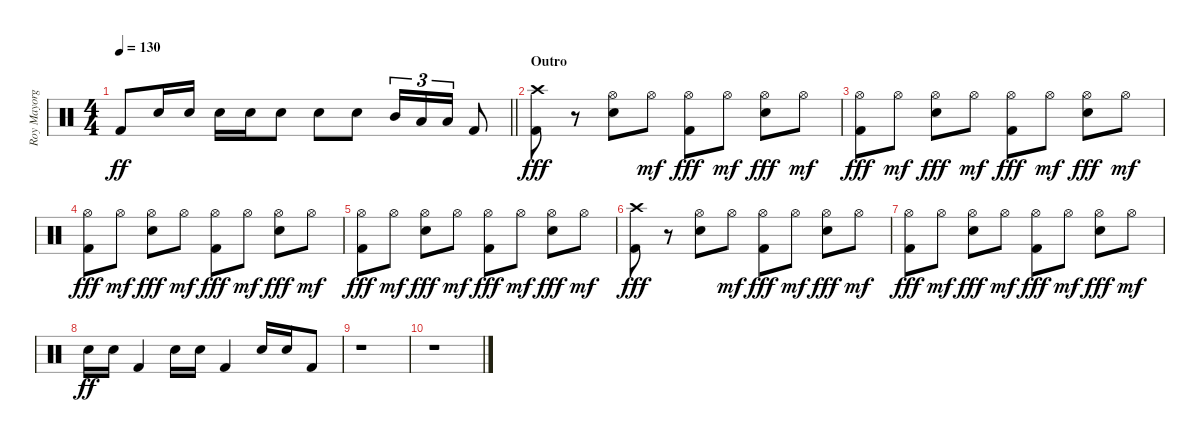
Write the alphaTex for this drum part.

\track ("Roy Mayorga (Drums)" "Roy Mayorg") {instrument percussion}
\staff {score}
\articulation defaults
\ts (4 4)
\tempo 130
\clef neutral
\barLineRight lightlight
\ks c "Kick (hit) 2".8{dy ff} "Electric Snare (hit)".16 "Electric Snare (hit)".16 "Electric Snare (hit)".16 "Electric Snare (hit)".16 "Electric Snare (hit)".8 "Electric Snare (hit)".8 "Electric Snare (hit)".8 "Mid Tom (hit)".16{tu (3 2)} "Low Tom (hit)".16{tu (3 2)} "Low Tom (hit)".16{tu (3 2)} "Kick (hit) 2".8
|
\section ("" "Outro")
("Crash high (hit)" "Kick (hit) 2").8{dy fff} r.8 ("Hi-Hat (open)" "Electric Snare (hit)").8 "Hi-Hat (open)".8{dy mf} ("Hi-Hat (open)" "Kick (hit) 2").8{dy fff} "Hi-Hat (open)".8{dy mf} ("Hi-Hat (open)" "Electric Snare (hit)").8{dy fff} "Hi-Hat (open)".8{dy mf} |
("Hi-Hat (open)" "Kick (hit) 2").8{dy fff} "Hi-Hat (open)".8{dy mf} ("Hi-Hat (open)" "Electric Snare (hit)").8{dy fff} "Hi-Hat (open)".8{dy mf} ("Hi-Hat (open)" "Kick (hit) 2").8{dy fff} "Hi-Hat (open)".8{dy mf} ("Hi-Hat (open)" "Electric Snare (hit)").8{dy fff} "Hi-Hat (open)".8{dy mf} |
("Hi-Hat (open)" "Kick (hit) 2").8{dy fff} "Hi-Hat (open)".8{dy mf} ("Hi-Hat (open)" "Electric Snare (hit)").8{dy fff} "Hi-Hat (open)".8{dy mf} ("Hi-Hat (open)" "Kick (hit) 2").8{dy fff} "Hi-Hat (open)".8{dy mf} ("Hi-Hat (open)" "Electric Snare (hit)").8{dy fff} "Hi-Hat (open)".8{dy mf} |
("Hi-Hat (open)" "Kick (hit) 2").8{dy fff} "Hi-Hat (open)".8{dy mf} ("Hi-Hat (open)" "Electric Snare (hit)").8{dy fff} "Hi-Hat (open)".8{dy mf} ("Hi-Hat (open)" "Kick (hit) 2").8{dy fff} "Hi-Hat (open)".8{dy mf} ("Hi-Hat (open)" "Electric Snare (hit)").8{dy fff} "Hi-Hat (open)".8{dy mf} |
("Crash high (hit)" "Kick (hit) 2").8{dy fff} r.8 ("Hi-Hat (open)" "Electric Snare (hit)").8 "Hi-Hat (open)".8{dy mf} ("Hi-Hat (open)" "Kick (hit) 2").8{dy fff} "Hi-Hat (open)".8{dy mf} ("Hi-Hat (open)" "Electric Snare (hit)").8{dy fff} "Hi-Hat (open)".8{dy mf} |
("Hi-Hat (open)" "Kick (hit) 2").8{dy fff} "Hi-Hat (open)".8{dy mf} ("Hi-Hat (open)" "Electric Snare (hit)").8{dy fff} "Hi-Hat (open)".8{dy mf} ("Hi-Hat (open)" "Kick (hit) 2").8{dy fff} "Hi-Hat (open)".8{dy mf} ("Hi-Hat (open)" "Electric Snare (hit)").8{dy fff} "Hi-Hat (open)".8{dy mf} |
"Electric Snare (hit)".16{dy ff} "Electric Snare (hit)".16 "Kick (hit) 2".4 "Electric Snare (hit)".16 "Electric Snare (hit)".16 "Kick (hit) 2".4 "Electric Snare (hit)".16 "Electric Snare (hit)".16 "Kick (hit) 2".8 |
r.1 |
r.1
